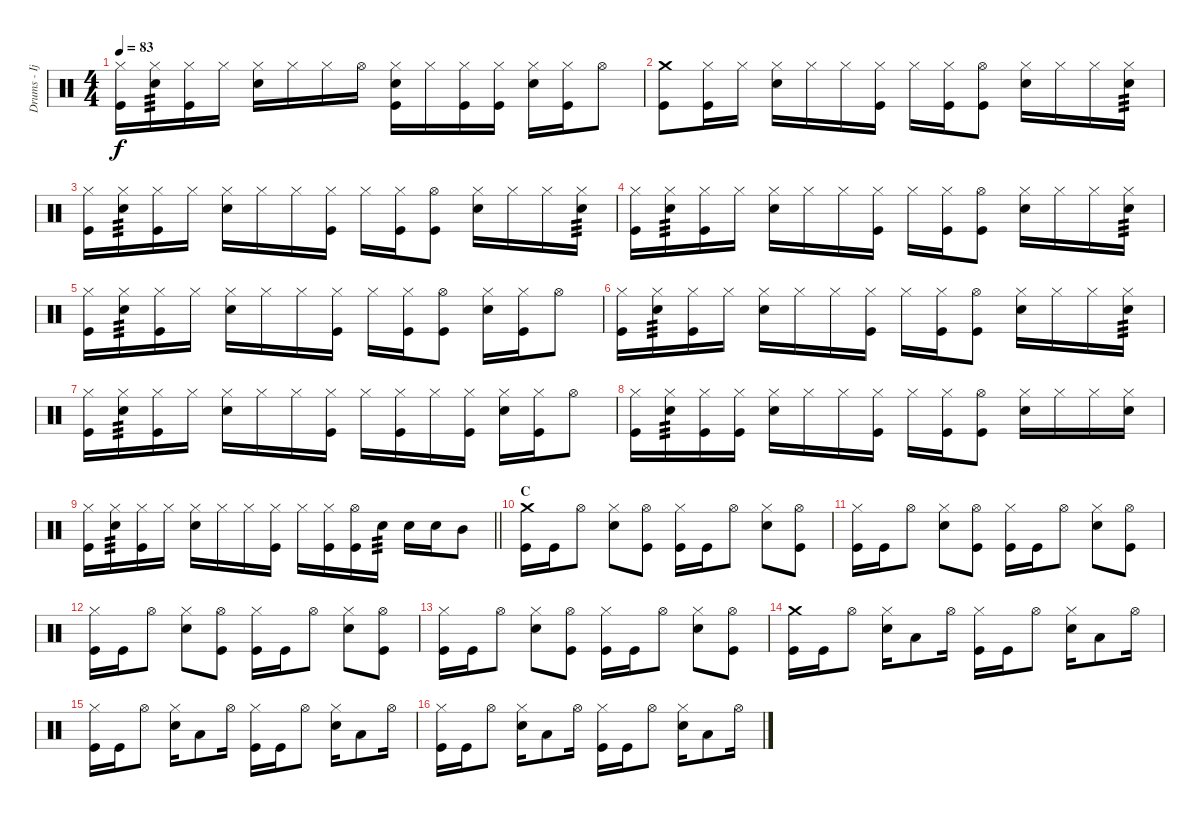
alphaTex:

\track ("Drums - Ijichi" "Drums - Ij") {instrument percussion}
\staff {score}
\articulation defaults
\ts (4 4)
\tempo 83
\clef neutral
\ks c
("Hi-Hat (closed)" "Kick (hit)").16{dy f} ("Hi-Hat (closed)" "Electric Snare (hit)").16{tp 3} ("Hi-Hat (closed)" "Kick (hit)").16 "Hi-Hat (closed)".16 ("Hi-Hat (closed)" "Electric Snare (hit)").16 "Hi-Hat (closed)".16 "Hi-Hat (closed)".16 "Hi-Hat (open)".16 ("Hi-Hat (closed)" "Electric Snare (hit)" "Kick (hit)").16 "Hi-Hat (closed)".16 ("Hi-Hat (closed)" "Kick (hit)").16 ("Hi-Hat (closed)" "Kick (hit)").16 ("Hi-Hat (closed)" "Electric Snare (hit)").16 ("Hi-Hat (closed)" "Kick (hit)").16 "Hi-Hat (open)".8 |
("Crash medium (hit)" "Kick (hit)").8 ("Hi-Hat (closed)" "Kick (hit)").16 "Hi-Hat (closed)".16 ("Hi-Hat (closed)" "Electric Snare (hit)").16 "Hi-Hat (closed)".16 "Hi-Hat (closed)".16 ("Hi-Hat (closed)" "Kick (hit)").16 "Hi-Hat (closed)".16 ("Hi-Hat (closed)" "Kick (hit)").16 ("Hi-Hat (open)" "Kick (hit)").8 ("Hi-Hat (closed)" "Electric Snare (hit)").16 "Hi-Hat (closed)".16 "Hi-Hat (closed)".16 ("Hi-Hat (closed)" "Electric Snare (hit)").16{tp 3} |
("Hi-Hat (closed)" "Kick (hit)").16 ("Hi-Hat (closed)" "Electric Snare (hit)").16{tp 3} ("Hi-Hat (closed)" "Kick (hit)").16 "Hi-Hat (closed)".16 ("Hi-Hat (closed)" "Electric Snare (hit)").16 "Hi-Hat (closed)".16 "Hi-Hat (closed)".16 ("Hi-Hat (closed)" "Kick (hit)").16 "Hi-Hat (closed)".16 ("Hi-Hat (closed)" "Kick (hit)").16 ("Hi-Hat (open)" "Kick (hit)").8 ("Hi-Hat (closed)" "Electric Snare (hit)").16 "Hi-Hat (closed)".16 "Hi-Hat (closed)".16 ("Hi-Hat (closed)" "Electric Snare (hit)").16{tp 3} |
("Hi-Hat (closed)" "Kick (hit)").16 ("Hi-Hat (closed)" "Electric Snare (hit)").16{tp 3} ("Hi-Hat (closed)" "Kick (hit)").16 "Hi-Hat (closed)".16 ("Hi-Hat (closed)" "Electric Snare (hit)").16 "Hi-Hat (closed)".16 "Hi-Hat (closed)".16 ("Hi-Hat (closed)" "Kick (hit)").16 "Hi-Hat (closed)".16 ("Hi-Hat (closed)" "Kick (hit)").16 ("Hi-Hat (open)" "Kick (hit)").8 ("Hi-Hat (closed)" "Electric Snare (hit)").16 "Hi-Hat (closed)".16 "Hi-Hat (closed)".16 ("Hi-Hat (closed)" "Electric Snare (hit)").16{tp 3} |
("Hi-Hat (closed)" "Kick (hit)").16 ("Hi-Hat (closed)" "Electric Snare (hit)").16{tp 3} ("Hi-Hat (closed)" "Kick (hit)").16 "Hi-Hat (closed)".16 ("Hi-Hat (closed)" "Electric Snare (hit)").16 "Hi-Hat (closed)".16 "Hi-Hat (closed)".16 ("Hi-Hat (closed)" "Kick (hit)").16 "Hi-Hat (closed)".16 ("Hi-Hat (closed)" "Kick (hit)").16 ("Hi-Hat (open)" "Kick (hit)").8 ("Hi-Hat (closed)" "Electric Snare (hit)").16 ("Hi-Hat (closed)" "Kick (hit)").16 "Hi-Hat (open)".8 |
("Hi-Hat (closed)" "Kick (hit)").16 ("Hi-Hat (closed)" "Electric Snare (hit)").16{tp 3} ("Hi-Hat (closed)" "Kick (hit)").16 "Hi-Hat (closed)".16 ("Hi-Hat (closed)" "Electric Snare (hit)").16 "Hi-Hat (closed)".16 "Hi-Hat (closed)".16 ("Hi-Hat (closed)" "Kick (hit)").16 "Hi-Hat (closed)".16 ("Hi-Hat (closed)" "Kick (hit)").16 ("Hi-Hat (open)" "Kick (hit)").8 ("Hi-Hat (closed)" "Electric Snare (hit)").16 "Hi-Hat (closed)".16 "Hi-Hat (closed)".16 ("Hi-Hat (closed)" "Electric Snare (hit)").16{tp 3} |
("Hi-Hat (closed)" "Kick (hit)").16 ("Hi-Hat (closed)" "Electric Snare (hit)").16{tp 3} ("Hi-Hat (closed)" "Kick (hit)").16 "Hi-Hat (closed)".16 ("Hi-Hat (closed)" "Electric Snare (hit)").16 "Hi-Hat (closed)".16 "Hi-Hat (closed)".16 ("Hi-Hat (closed)" "Kick (hit)").16 "Hi-Hat (closed)".16 ("Hi-Hat (closed)" "Kick (hit)").16 "Hi-Hat (closed)".16 ("Hi-Hat (closed)" "Kick (hit)").16 ("Hi-Hat (closed)" "Electric Snare (hit)").16 ("Hi-Hat (closed)" "Kick (hit)").16 "Hi-Hat (open)".8 |
("Hi-Hat (closed)" "Kick (hit)").16 ("Hi-Hat (closed)" "Electric Snare (hit)").16{tp 3} ("Hi-Hat (closed)" "Kick (hit)").16 ("Hi-Hat (closed)" "Kick (hit)").16 ("Hi-Hat (closed)" "Electric Snare (hit)").16 "Hi-Hat (closed)".16 "Hi-Hat (closed)".16 ("Hi-Hat (closed)" "Kick (hit)").16 "Hi-Hat (closed)".16 ("Hi-Hat (closed)" "Kick (hit)").16 ("Hi-Hat (open)" "Kick (hit)").8 ("Hi-Hat (closed)" "Electric Snare (hit)").16 "Hi-Hat (closed)".16 "Hi-Hat (closed)".16 ("Hi-Hat (closed)" "Electric Snare (hit)").16 |
\barLineRight lightlight
("Hi-Hat (closed)" "Kick (hit)").16 ("Hi-Hat (closed)" "Electric Snare (hit)").16{tp 3} ("Hi-Hat (closed)" "Kick (hit)").16 "Hi-Hat (closed)".16 ("Hi-Hat (closed)" "Electric Snare (hit)").16 "Hi-Hat (closed)".16 "Hi-Hat (closed)".16 ("Hi-Hat (closed)" "Kick (hit)").16 "Hi-Hat (closed)".16 ("Hi-Hat (closed)" "Kick (hit)").16 ("Hi-Hat (open)" "Kick (hit)").16 "Electric Snare (hit)".16{tp 3} "Electric Snare (hit)".16 "Electric Snare (hit)".16 "Mid Tom (hit)".8 |
\section ("" "C")
("Crash medium (hit)" "Kick (hit)").16 "Kick (hit)".16 "Hi-Hat (open)".8 ("Hi-Hat (closed)" "Electric Snare (hit)").8 ("Hi-Hat (open)" "Kick (hit)").8 ("Hi-Hat (closed)" "Kick (hit)").16 "Kick (hit)".16 "Hi-Hat (open)".8 ("Hi-Hat (closed)" "Electric Snare (hit)").8 ("Hi-Hat (open)" "Kick (hit)").8 |
("Hi-Hat (closed)" "Kick (hit)").16 "Kick (hit)".16 "Hi-Hat (open)".8 ("Hi-Hat (closed)" "Electric Snare (hit)").8 ("Hi-Hat (open)" "Kick (hit)").8 ("Hi-Hat (closed)" "Kick (hit)").16 "Kick (hit)".16 "Hi-Hat (open)".8 ("Hi-Hat (closed)" "Electric Snare (hit)").8 ("Hi-Hat (open)" "Kick (hit)").8 |
("Hi-Hat (closed)" "Kick (hit)").16 "Kick (hit)".16 "Hi-Hat (open)".8 ("Hi-Hat (closed)" "Electric Snare (hit)").8 ("Hi-Hat (open)" "Kick (hit)").8 ("Hi-Hat (closed)" "Kick (hit)").16 "Kick (hit)".16 "Hi-Hat (open)".8 ("Hi-Hat (closed)" "Electric Snare (hit)").8 ("Hi-Hat (open)" "Kick (hit)").8 |
("Hi-Hat (closed)" "Kick (hit)").16 "Kick (hit)".16 "Hi-Hat (open)".8 ("Hi-Hat (closed)" "Electric Snare (hit)").8 ("Hi-Hat (open)" "Kick (hit)").8 ("Hi-Hat (closed)" "Kick (hit)").16 "Kick (hit)".16 "Hi-Hat (open)".8 ("Hi-Hat (closed)" "Electric Snare (hit)").8 ("Hi-Hat (open)" "Kick (hit)").8 |
("Crash medium (hit)" "Kick (hit)").16 "Kick (hit)".16 "Hi-Hat (open)".8 ("Hi-Hat (closed)" "Electric Snare (hit)").16 "Low Tom (hit)".8 "Hi-Hat (open)".16 ("Hi-Hat (closed)" "Kick (hit)").16 "Kick (hit)".16 "Hi-Hat (open)".8 ("Hi-Hat (closed)" "Electric Snare (hit)").16 "Low Tom (hit)".8 "Hi-Hat (open)".16 |
("Hi-Hat (closed)" "Kick (hit)").16 "Kick (hit)".16 "Hi-Hat (open)".8 ("Hi-Hat (closed)" "Electric Snare (hit)").16 "Low Tom (hit)".8 "Hi-Hat (open)".16 ("Hi-Hat (closed)" "Kick (hit)").16 "Kick (hit)".16 "Hi-Hat (open)".8 ("Hi-Hat (closed)" "Electric Snare (hit)").16 "Low Tom (hit)".8 "Hi-Hat (open)".16 |
("Hi-Hat (closed)" "Kick (hit)").16 "Kick (hit)".16 "Hi-Hat (open)".8 ("Hi-Hat (closed)" "Electric Snare (hit)").16 "Low Tom (hit)".8 "Hi-Hat (open)".16 ("Hi-Hat (closed)" "Kick (hit)").16 "Kick (hit)".16 "Hi-Hat (open)".8 ("Hi-Hat (closed)" "Electric Snare (hit)").16 "Low Tom (hit)".8 "Hi-Hat (open)".16
